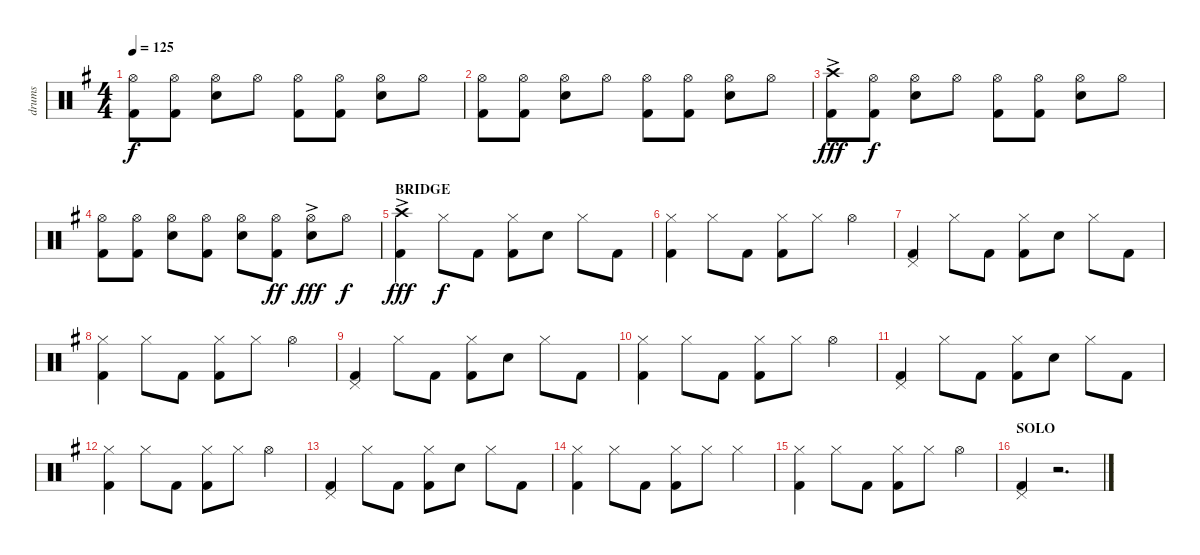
\track ("drums" "drums") {instrument percussion}
\staff {score}
\articulation defaults
\ts (4 4)
\tempo 125
\clef neutral
\ks eminor
("Hi-Hat (open)" "Kick (hit) 2").8{dy f} ("Hi-Hat (open)" "Kick (hit) 2").8 ("Hi-Hat (open)" "Snare (hit) 2").8 "Hi-Hat (open)".8 ("Hi-Hat (open)" "Kick (hit) 2").8 ("Hi-Hat (open)" "Kick (hit) 2").8 ("Hi-Hat (open)" "Snare (hit) 2").8 "Hi-Hat (open)".8 |
("Hi-Hat (open)" "Kick (hit) 2").8 ("Hi-Hat (open)" "Kick (hit) 2").8 ("Hi-Hat (open)" "Snare (hit) 2").8 "Hi-Hat (open)".8 ("Hi-Hat (open)" "Kick (hit) 2").8 ("Hi-Hat (open)" "Kick (hit) 2").8 ("Hi-Hat (open)" "Snare (hit) 2").8 "Hi-Hat (open)".8 |
("Crash high (hit)"{ac} "Kick (hit) 2"{ac}).8{dy fff} ("Hi-Hat (open)" "Kick (hit) 2").8{dy f} ("Hi-Hat (open)" "Snare (hit) 2").8 "Hi-Hat (open)".8 ("Hi-Hat (open)" "Kick (hit) 2").8 ("Hi-Hat (open)" "Kick (hit) 2").8 ("Hi-Hat (open)" "Snare (hit) 2").8 "Hi-Hat (open)".8 |
("Hi-Hat (open)" "Kick (hit) 2").8 ("Hi-Hat (open)" "Kick (hit) 2").8 ("Hi-Hat (open)" "Electric Snare (hit)").8 ("Hi-Hat (open)" "Kick (hit) 2").8 ("Hi-Hat (open)" "Electric Snare (hit)").8 ("Hi-Hat (open)" "Kick (hit) 2").8{dy ff} ("Hi-Hat (open)" "Electric Snare (hit)"{ac}).8{dy fff} "Hi-Hat (open)".8{dy f} |
\section ("" "BRIDGE")
("Crash high (hit)"{ac} "Kick (hit) 2"{ac}).4{dy fff} "Hi-Hat (closed)".8{dy f} "Kick (hit) 2".8 ("Hi-Hat (closed)" "Kick (hit) 2").8 "Snare (hit) 2".8 "Hi-Hat (closed)".8 "Kick (hit) 2".8 |
("Hi-Hat (closed)" "Kick (hit) 2").4 "Hi-Hat (closed)".8 "Kick (hit) 2".8 ("Hi-Hat (closed)" "Kick (hit) 2").8 "Hi-Hat (closed)".8 "Hi-Hat (open)".4 |
("Pedal Hi-Hat (hit)" "Kick (hit) 2").4 "Hi-Hat (closed)".8 "Kick (hit) 2".8 ("Hi-Hat (closed)" "Kick (hit) 2").8 "Snare (hit) 2".8 "Hi-Hat (closed)".8 "Kick (hit) 2".8 |
("Hi-Hat (closed)" "Kick (hit) 2").4 "Hi-Hat (closed)".8 "Kick (hit) 2".8 ("Hi-Hat (closed)" "Kick (hit) 2").8 "Hi-Hat (closed)".8 "Hi-Hat (open)".4 |
("Pedal Hi-Hat (hit)" "Kick (hit) 2").4 "Hi-Hat (closed)".8 "Kick (hit) 2".8 ("Hi-Hat (closed)" "Kick (hit) 2").8 "Snare (hit) 2".8 "Hi-Hat (closed)".8 "Kick (hit) 2".8 |
("Hi-Hat (closed)" "Kick (hit) 2").4 "Hi-Hat (closed)".8 "Kick (hit) 2".8 ("Hi-Hat (closed)" "Kick (hit) 2").8 "Hi-Hat (closed)".8 "Hi-Hat (open)".4 |
("Pedal Hi-Hat (hit)" "Kick (hit) 2").4 "Hi-Hat (closed)".8 "Kick (hit) 2".8 ("Hi-Hat (closed)" "Kick (hit) 2").8 "Snare (hit) 2".8 "Hi-Hat (closed)".8 "Kick (hit) 2".8 |
("Hi-Hat (closed)" "Kick (hit) 2").4 "Hi-Hat (closed)".8 "Kick (hit) 2".8 ("Hi-Hat (closed)" "Kick (hit) 2").8 "Hi-Hat (closed)".8 "Hi-Hat (open)".4 |
("Pedal Hi-Hat (hit)" "Kick (hit) 2").4 "Hi-Hat (closed)".8 "Kick (hit) 2".8 ("Hi-Hat (closed)" "Kick (hit) 2").8 "Snare (hit) 2".8 "Hi-Hat (closed)".8 "Kick (hit) 2".8 |
("Hi-Hat (closed)" "Kick (hit) 2").4 "Hi-Hat (closed)".8 "Kick (hit) 2".8 ("Hi-Hat (closed)" "Kick (hit) 2").8 "Hi-Hat (closed)".8 "Hi-Hat (closed)".4 |
("Hi-Hat (closed)" "Kick (hit) 2").4 "Hi-Hat (closed)".8 "Kick (hit) 2".8 ("Hi-Hat (closed)" "Kick (hit) 2").8 "Hi-Hat (closed)".8 "Hi-Hat (open)".4 |
\section ("" "SOLO")
("Pedal Hi-Hat (hit)" "Kick (hit) 2").4 r.2{d}
